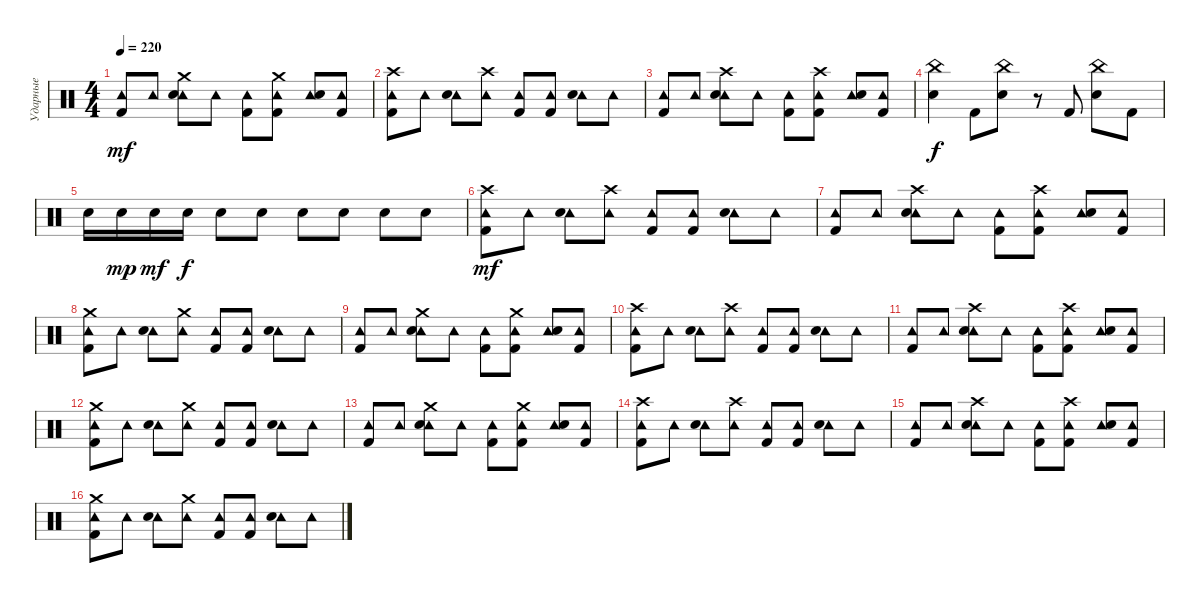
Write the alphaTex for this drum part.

\track ("Ударные" "Ударные") {instrument percussion}
\staff {score}
\articulation defaults
\ts (4 4)
\tempo 220
\clef neutral
\ks c
("Tambourine (hit)" "Kick (hit) 2").8{dy mf} "Tambourine (hit)".8 ("Crash medium (hit)" "Tambourine (hit)" "Electric Snare (hit)").8 "Tambourine (hit)".8 ("Tambourine (hit)" "Kick (hit) 2").8 ("Crash medium (hit)" "Tambourine (hit)" "Kick (hit) 2").8 ("Tambourine (hit)" "Electric Snare (hit)").8 ("Tambourine (hit)" "Kick (hit) 2").8 |
("Crash high (hit)" "Tambourine (hit)" "Kick (hit) 2").8 "Tambourine (hit)".8 ("Tambourine (hit)" "Electric Snare (hit)").8 ("Crash high (hit)" "Tambourine (hit)").8 ("Tambourine (hit)" "Kick (hit) 2").8 ("Tambourine (hit)" "Kick (hit) 2").8 ("Tambourine (hit)" "Electric Snare (hit)").8 "Tambourine (hit)".8 |
("Tambourine (hit)" "Kick (hit) 2").8 "Tambourine (hit)".8 ("Crash high (hit)" "Tambourine (hit)" "Electric Snare (hit)").8 "Tambourine (hit)".8 ("Tambourine (hit)" "Kick (hit) 2").8 ("Crash high (hit)" "Tambourine (hit)" "Kick (hit) 2").8 ("Tambourine (hit)" "Electric Snare (hit)").8 ("Tambourine (hit)" "Kick (hit) 2").8 |
("China (hit)" "Electric Snare (hit)").4{dy f} "Kick (hit) 2".8 ("China (hit)" "Electric Snare (hit)").8 r.8 "Kick (hit) 2".8 ("China (hit)" "Electric Snare (hit)").8 "Kick (hit) 2".8 |
"Electric Snare (hit)".16 "Electric Snare (hit)".16{dy mp} "Electric Snare (hit)".16{dy mf} "Electric Snare (hit)".16{dy f} "Electric Snare (hit)".8 "Electric Snare (hit)".8 "Electric Snare (hit)".8 "Electric Snare (hit)".8 "Electric Snare (hit)".8 "Electric Snare (hit)".8 |
("Crash high (hit)" "Tambourine (hit)" "Kick (hit) 2").8{dy mf} "Tambourine (hit)".8 ("Tambourine (hit)" "Electric Snare (hit)").8 ("Crash high (hit)" "Tambourine (hit)").8 ("Tambourine (hit)" "Kick (hit) 2").8 ("Tambourine (hit)" "Kick (hit) 2").8 ("Tambourine (hit)" "Electric Snare (hit)").8 "Tambourine (hit)".8 |
("Tambourine (hit)" "Kick (hit) 2").8 "Tambourine (hit)".8 ("Crash high (hit)" "Tambourine (hit)" "Electric Snare (hit)").8 "Tambourine (hit)".8 ("Tambourine (hit)" "Kick (hit) 2").8 ("Crash high (hit)" "Tambourine (hit)" "Kick (hit) 2").8 ("Tambourine (hit)" "Electric Snare (hit)").8 ("Tambourine (hit)" "Kick (hit) 2").8 |
("Crash medium (hit)" "Tambourine (hit)" "Kick (hit) 2").8 "Tambourine (hit)".8 ("Tambourine (hit)" "Electric Snare (hit)").8 ("Crash medium (hit)" "Tambourine (hit)").8 ("Tambourine (hit)" "Kick (hit) 2").8 ("Tambourine (hit)" "Kick (hit) 2").8 ("Tambourine (hit)" "Electric Snare (hit)").8 "Tambourine (hit)".8 |
("Tambourine (hit)" "Kick (hit) 2").8 "Tambourine (hit)".8 ("Crash medium (hit)" "Tambourine (hit)" "Electric Snare (hit)").8 "Tambourine (hit)".8 ("Tambourine (hit)" "Kick (hit) 2").8 ("Crash medium (hit)" "Tambourine (hit)" "Kick (hit) 2").8 ("Tambourine (hit)" "Electric Snare (hit)").8 ("Tambourine (hit)" "Kick (hit) 2").8 |
("Crash high (hit)" "Tambourine (hit)" "Kick (hit) 2").8 "Tambourine (hit)".8 ("Tambourine (hit)" "Electric Snare (hit)").8 ("Crash high (hit)" "Tambourine (hit)").8 ("Tambourine (hit)" "Kick (hit) 2").8 ("Tambourine (hit)" "Kick (hit) 2").8 ("Tambourine (hit)" "Electric Snare (hit)").8 "Tambourine (hit)".8 |
("Tambourine (hit)" "Kick (hit) 2").8 "Tambourine (hit)".8 ("Crash high (hit)" "Tambourine (hit)" "Electric Snare (hit)").8 "Tambourine (hit)".8 ("Tambourine (hit)" "Kick (hit) 2").8 ("Crash high (hit)" "Tambourine (hit)" "Kick (hit) 2").8 ("Tambourine (hit)" "Electric Snare (hit)").8 ("Tambourine (hit)" "Kick (hit) 2").8 |
("Crash medium (hit)" "Tambourine (hit)" "Kick (hit) 2").8 "Tambourine (hit)".8 ("Tambourine (hit)" "Electric Snare (hit)").8 ("Crash medium (hit)" "Tambourine (hit)").8 ("Tambourine (hit)" "Kick (hit) 2").8 ("Tambourine (hit)" "Kick (hit) 2").8 ("Tambourine (hit)" "Electric Snare (hit)").8 "Tambourine (hit)".8 |
("Tambourine (hit)" "Kick (hit) 2").8 "Tambourine (hit)".8 ("Crash medium (hit)" "Tambourine (hit)" "Electric Snare (hit)").8 "Tambourine (hit)".8 ("Tambourine (hit)" "Kick (hit) 2").8 ("Crash medium (hit)" "Tambourine (hit)" "Kick (hit) 2").8 ("Tambourine (hit)" "Electric Snare (hit)").8 ("Tambourine (hit)" "Kick (hit) 2").8 |
("Crash high (hit)" "Tambourine (hit)" "Kick (hit) 2").8 "Tambourine (hit)".8 ("Tambourine (hit)" "Electric Snare (hit)").8 ("Crash high (hit)" "Tambourine (hit)").8 ("Tambourine (hit)" "Kick (hit) 2").8 ("Tambourine (hit)" "Kick (hit) 2").8 ("Tambourine (hit)" "Electric Snare (hit)").8 "Tambourine (hit)".8 |
("Tambourine (hit)" "Kick (hit) 2").8 "Tambourine (hit)".8 ("Crash high (hit)" "Tambourine (hit)" "Electric Snare (hit)").8 "Tambourine (hit)".8 ("Tambourine (hit)" "Kick (hit) 2").8 ("Crash high (hit)" "Tambourine (hit)" "Kick (hit) 2").8 ("Tambourine (hit)" "Electric Snare (hit)").8 ("Tambourine (hit)" "Kick (hit) 2").8 |
("Crash medium (hit)" "Tambourine (hit)" "Kick (hit) 2").8 "Tambourine (hit)".8 ("Tambourine (hit)" "Electric Snare (hit)").8 ("Crash medium (hit)" "Tambourine (hit)").8 ("Tambourine (hit)" "Kick (hit) 2").8 ("Tambourine (hit)" "Kick (hit) 2").8 ("Tambourine (hit)" "Electric Snare (hit)").8 "Tambourine (hit)".8
